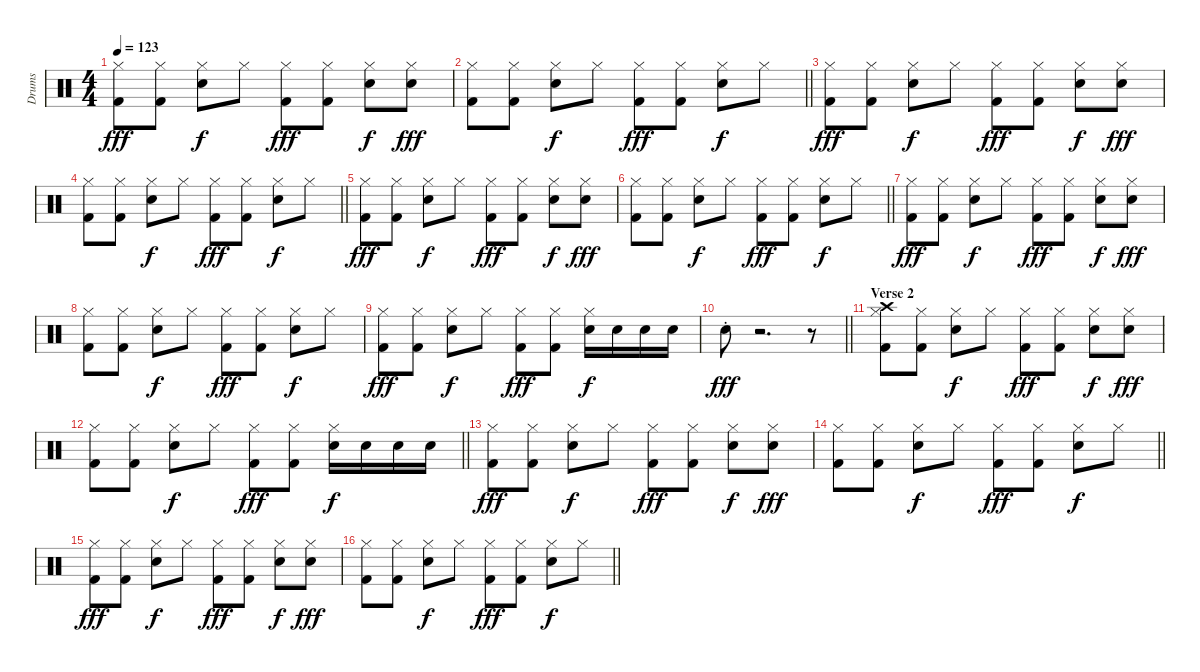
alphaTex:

\track ("Drums" "Drums") {instrument percussion}
\staff {score}
\articulation defaults
\ts (4 4)
\tempo 123
\clef neutral
\ks c
("Hi-Hat (closed)" "Kick (hit) 2").8{dy fff} ("Hi-Hat (closed)" "Kick (hit) 2").8 ("Hi-Hat (closed)" "Snare (hit) 2").8{dy f} "Hi-Hat (closed)".8 ("Hi-Hat (closed)" "Kick (hit) 2").8{dy fff} ("Hi-Hat (closed)" "Kick (hit) 2").8 ("Hi-Hat (closed)" "Snare (hit) 2").8{dy f} ("Hi-Hat (closed)" "Snare (hit) 2").8{dy fff} |
\barLineRight lightlight
("Hi-Hat (closed)" "Kick (hit) 2").8 ("Hi-Hat (closed)" "Kick (hit) 2").8 ("Hi-Hat (closed)" "Snare (hit) 2").8{dy f} "Hi-Hat (closed)".8 ("Hi-Hat (closed)" "Kick (hit) 2").8{dy fff} ("Hi-Hat (closed)" "Kick (hit) 2").8 ("Hi-Hat (closed)" "Snare (hit) 2").8{dy f} "Hi-Hat (closed)".8 |
("Hi-Hat (closed)" "Kick (hit) 2").8{dy fff} ("Hi-Hat (closed)" "Kick (hit) 2").8 ("Hi-Hat (closed)" "Snare (hit) 2").8{dy f} "Hi-Hat (closed)".8 ("Hi-Hat (closed)" "Kick (hit) 2").8{dy fff} ("Hi-Hat (closed)" "Kick (hit) 2").8 ("Hi-Hat (closed)" "Snare (hit) 2").8{dy f} ("Hi-Hat (closed)" "Snare (hit) 2").8{dy fff} |
\barLineRight lightlight
("Hi-Hat (closed)" "Kick (hit) 2").8 ("Hi-Hat (closed)" "Kick (hit) 2").8 ("Hi-Hat (closed)" "Snare (hit) 2").8{dy f} "Hi-Hat (closed)".8 ("Hi-Hat (closed)" "Kick (hit) 2").8{dy fff} ("Hi-Hat (closed)" "Kick (hit) 2").8 ("Hi-Hat (closed)" "Snare (hit) 2").8{dy f} "Hi-Hat (closed)".8 |
("Hi-Hat (closed)" "Kick (hit) 2").8{dy fff} ("Hi-Hat (closed)" "Kick (hit) 2").8 ("Hi-Hat (closed)" "Snare (hit) 2").8{dy f} "Hi-Hat (closed)".8 ("Hi-Hat (closed)" "Kick (hit) 2").8{dy fff} ("Hi-Hat (closed)" "Kick (hit) 2").8 ("Hi-Hat (closed)" "Snare (hit) 2").8{dy f} ("Hi-Hat (closed)" "Snare (hit) 2").8{dy fff} |
\barLineRight lightlight
("Hi-Hat (closed)" "Kick (hit) 2").8 ("Hi-Hat (closed)" "Kick (hit) 2").8 ("Hi-Hat (closed)" "Snare (hit) 2").8{dy f} "Hi-Hat (closed)".8 ("Hi-Hat (closed)" "Kick (hit) 2").8{dy fff} ("Hi-Hat (closed)" "Kick (hit) 2").8 ("Hi-Hat (closed)" "Snare (hit) 2").8{dy f} "Hi-Hat (closed)".8 |
("Hi-Hat (closed)" "Kick (hit) 2").8{dy fff} ("Hi-Hat (closed)" "Kick (hit) 2").8 ("Hi-Hat (closed)" "Snare (hit) 2").8{dy f} "Hi-Hat (closed)".8 ("Hi-Hat (closed)" "Kick (hit) 2").8{dy fff} ("Hi-Hat (closed)" "Kick (hit) 2").8 ("Hi-Hat (closed)" "Snare (hit) 2").8{dy f} ("Hi-Hat (closed)" "Snare (hit) 2").8{dy fff} |
("Hi-Hat (closed)" "Kick (hit) 2").8 ("Hi-Hat (closed)" "Kick (hit) 2").8 ("Hi-Hat (closed)" "Snare (hit) 2").8{dy f} "Hi-Hat (closed)".8 ("Hi-Hat (closed)" "Kick (hit) 2").8{dy fff} ("Hi-Hat (closed)" "Kick (hit) 2").8 ("Hi-Hat (closed)" "Snare (hit) 2").8{dy f} "Hi-Hat (closed)".8 |
("Hi-Hat (closed)" "Kick (hit) 2").8{dy fff} ("Hi-Hat (closed)" "Kick (hit) 2").8 ("Hi-Hat (closed)" "Snare (hit) 2").8{dy f} "Hi-Hat (closed)".8 ("Hi-Hat (closed)" "Kick (hit) 2").8{dy fff} ("Hi-Hat (closed)" "Kick (hit) 2").8 ("Hi-Hat (closed)" "Snare (hit) 2").16{dy f} "Snare (hit) 2".16 "Snare (hit) 2".16 "Snare (hit) 2".16 |
\barLineRight lightlight "Snare (hit) 2"{st}.8{dy fff}
r.2{d} r.8 |
\section ("" "Verse 2")
("Hi-Hat (closed)" "Kick (hit) 2" "Crash high (hit)").8 ("Hi-Hat (closed)" "Kick (hit) 2").8 ("Hi-Hat (closed)" "Snare (hit) 2").8{dy f} "Hi-Hat (closed)".8 ("Hi-Hat (closed)" "Kick (hit) 2").8{dy fff} ("Hi-Hat (closed)" "Kick (hit) 2").8 ("Hi-Hat (closed)" "Snare (hit) 2").8{dy f} ("Hi-Hat (closed)" "Snare (hit) 2").8{dy fff} |
\barLineRight lightlight
("Hi-Hat (closed)" "Kick (hit) 2").8 ("Hi-Hat (closed)" "Kick (hit) 2").8 ("Hi-Hat (closed)" "Snare (hit) 2").8{dy f} "Hi-Hat (closed)".8 ("Hi-Hat (closed)" "Kick (hit) 2").8{dy fff} ("Hi-Hat (closed)" "Kick (hit) 2").8 ("Hi-Hat (closed)" "Snare (hit) 2").16{dy f} "Snare (hit) 2".16 "Snare (hit) 2".16 "Snare (hit) 2".16 |
("Hi-Hat (closed)" "Kick (hit) 2").8{dy fff} ("Hi-Hat (closed)" "Kick (hit) 2").8 ("Hi-Hat (closed)" "Snare (hit) 2").8{dy f} "Hi-Hat (closed)".8 ("Hi-Hat (closed)" "Kick (hit) 2").8{dy fff} ("Hi-Hat (closed)" "Kick (hit) 2").8 ("Hi-Hat (closed)" "Snare (hit) 2").8{dy f} ("Hi-Hat (closed)" "Snare (hit) 2").8{dy fff} |
\barLineRight lightlight
("Hi-Hat (closed)" "Kick (hit) 2").8 ("Hi-Hat (closed)" "Kick (hit) 2").8 ("Hi-Hat (closed)" "Snare (hit) 2").8{dy f} "Hi-Hat (closed)".8 ("Hi-Hat (closed)" "Kick (hit) 2").8{dy fff} ("Hi-Hat (closed)" "Kick (hit) 2").8 ("Hi-Hat (closed)" "Snare (hit) 2").8{dy f} "Hi-Hat (closed)".8 |
("Hi-Hat (closed)" "Kick (hit) 2").8{dy fff} ("Hi-Hat (closed)" "Kick (hit) 2").8 ("Hi-Hat (closed)" "Snare (hit) 2").8{dy f} "Hi-Hat (closed)".8 ("Hi-Hat (closed)" "Kick (hit) 2").8{dy fff} ("Hi-Hat (closed)" "Kick (hit) 2").8 ("Hi-Hat (closed)" "Snare (hit) 2").8{dy f} ("Hi-Hat (closed)" "Snare (hit) 2").8{dy fff} |
\barLineRight lightlight
("Hi-Hat (closed)" "Kick (hit) 2").8 ("Hi-Hat (closed)" "Kick (hit) 2").8 ("Hi-Hat (closed)" "Snare (hit) 2").8{dy f} "Hi-Hat (closed)".8 ("Hi-Hat (closed)" "Kick (hit) 2").8{dy fff} ("Hi-Hat (closed)" "Kick (hit) 2").8 ("Hi-Hat (closed)" "Snare (hit) 2").8{dy f} "Hi-Hat (closed)".8
